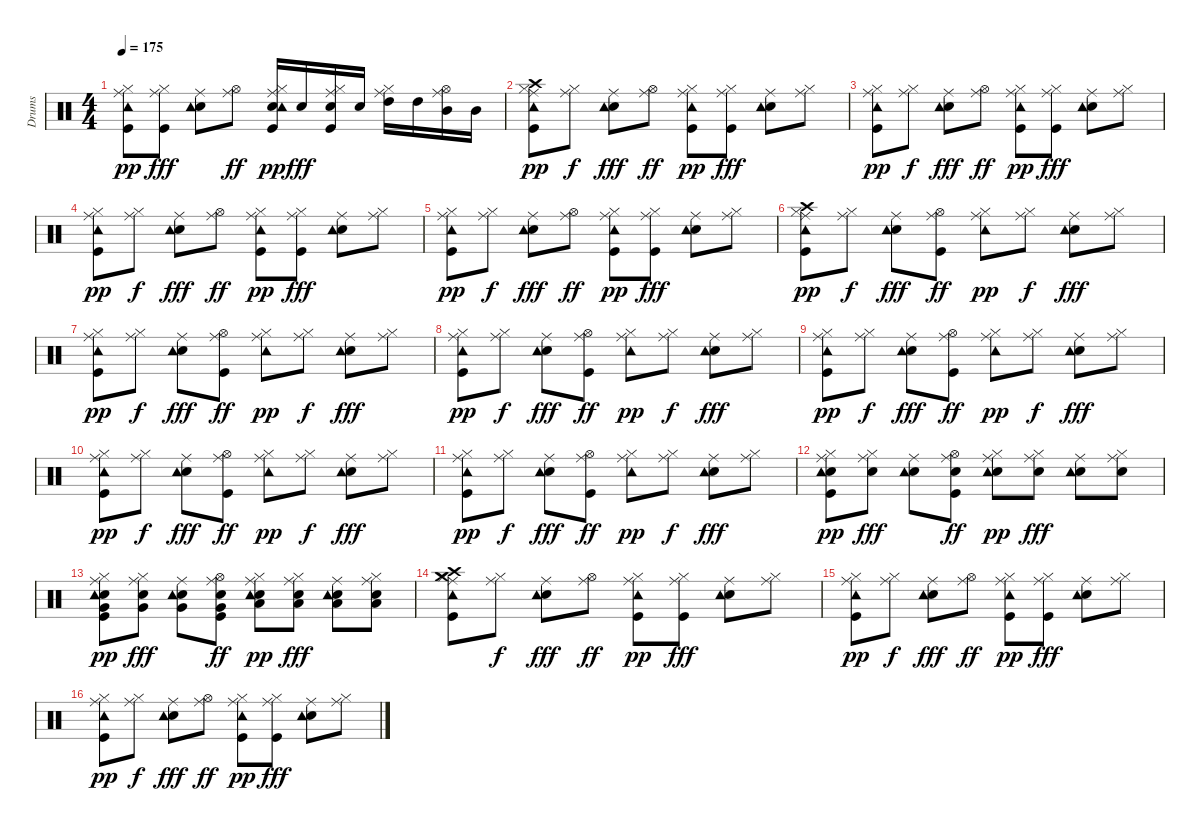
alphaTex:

\track ("Drums" "Drums") {instrument percussion}
\staff {score}
\articulation defaults
\ts (4 4)
\tempo 175
\clef neutral
\ks c
("Kick (hit)" "Hi-Hat (closed)" "Ride (middle)" "Tambourine (hit)").8{dy pp} ("Kick (hit)" "Hi-Hat (closed)" "Ride (middle)").8{dy fff} ("Snare (hit) 2" "Ride (middle)" "Tambourine (hit)").8 ("Hi-Hat (open)" "Ride (middle)").8{dy ff} ("Kick (hit)" "Snare (hit) 2" "Hi-Hat (closed)" "Ride (middle)" "Tambourine (hit)").16{dy pp} "Snare (hit) 2".16{dy fff} ("Kick (hit)" "Snare (hit) 2" "Hi-Hat (closed)" "Ride (middle)").16 "Snare (hit) 2".16 ("Hi-Hat (closed)" "High Tom (hit)" "Ride (middle)").16 "High Tom (hit)".16 ("Hi-Hat (open)" "Mid Tom (hit)" "Ride (middle)").16 "Mid Tom (hit)".16 |
("Kick (hit)" "Hi-Hat (closed)" "Crash high (hit)" "Ride (middle)" "Tambourine (hit)").8{dy pp} ("Hi-Hat (closed)" "Ride (middle)").8{dy f} ("Snare (hit) 2" "Ride (middle)" "Tambourine (hit)").8{dy fff} ("Hi-Hat (open)" "Ride (middle)").8{dy ff} ("Kick (hit)" "Hi-Hat (closed)" "Ride (middle)" "Tambourine (hit)").8{dy pp} ("Kick (hit)" "Hi-Hat (closed)" "Ride (middle)").8{dy fff} ("Snare (hit) 2" "Ride (middle)" "Tambourine (hit)").8 ("Hi-Hat (closed)" "Ride (middle)").8 |
("Kick (hit)" "Hi-Hat (closed)" "Ride (middle)" "Tambourine (hit)").8{dy pp} ("Hi-Hat (closed)" "Ride (middle)").8{dy f} ("Snare (hit) 2" "Ride (middle)" "Tambourine (hit)").8{dy fff} ("Hi-Hat (open)" "Ride (middle)").8{dy ff} ("Kick (hit)" "Hi-Hat (closed)" "Ride (middle)" "Tambourine (hit)").8{dy pp} ("Kick (hit)" "Hi-Hat (closed)" "Ride (middle)").8{dy fff} ("Snare (hit) 2" "Ride (middle)" "Tambourine (hit)").8 ("Hi-Hat (closed)" "Ride (middle)").8 |
("Kick (hit)" "Hi-Hat (closed)" "Ride (middle)" "Tambourine (hit)").8{dy pp} ("Hi-Hat (closed)" "Ride (middle)").8{dy f} ("Snare (hit) 2" "Ride (middle)" "Tambourine (hit)").8{dy fff} ("Hi-Hat (open)" "Ride (middle)").8{dy ff} ("Kick (hit)" "Hi-Hat (closed)" "Ride (middle)" "Tambourine (hit)").8{dy pp} ("Kick (hit)" "Hi-Hat (closed)" "Ride (middle)").8{dy fff} ("Snare (hit) 2" "Ride (middle)" "Tambourine (hit)").8 ("Hi-Hat (closed)" "Ride (middle)").8 |
("Kick (hit)" "Hi-Hat (closed)" "Ride (middle)" "Tambourine (hit)").8{dy pp} ("Hi-Hat (closed)" "Ride (middle)").8{dy f} ("Snare (hit) 2" "Ride (middle)" "Tambourine (hit)").8{dy fff} ("Hi-Hat (open)" "Ride (middle)").8{dy ff} ("Kick (hit)" "Hi-Hat (closed)" "Ride (middle)" "Tambourine (hit)").8{dy pp} ("Kick (hit)" "Hi-Hat (closed)" "Ride (middle)").8{dy fff} ("Snare (hit) 2" "Ride (middle)" "Tambourine (hit)").8 ("Hi-Hat (closed)" "Ride (middle)").8 |
("Kick (hit)" "Hi-Hat (closed)" "Crash high (hit)" "Ride (middle)" "Tambourine (hit)").8{dy pp} ("Hi-Hat (closed)" "Ride (middle)").8{dy f} ("Snare (hit) 2" "Ride (middle)" "Tambourine (hit)").8{dy fff} ("Kick (hit)" "Hi-Hat (open)" "Ride (middle)").8{dy ff} ("Hi-Hat (closed)" "Ride (middle)" "Tambourine (hit)").8{dy pp} ("Hi-Hat (closed)" "Ride (middle)").8{dy f} ("Snare (hit) 2" "Ride (middle)" "Tambourine (hit)").8{dy fff} ("Hi-Hat (closed)" "Ride (middle)").8 |
("Kick (hit)" "Hi-Hat (closed)" "Ride (middle)" "Tambourine (hit)").8{dy pp} ("Hi-Hat (closed)" "Ride (middle)").8{dy f} ("Snare (hit) 2" "Ride (middle)" "Tambourine (hit)").8{dy fff} ("Kick (hit)" "Hi-Hat (open)" "Ride (middle)").8{dy ff} ("Hi-Hat (closed)" "Ride (middle)" "Tambourine (hit)").8{dy pp} ("Hi-Hat (closed)" "Ride (middle)").8{dy f} ("Snare (hit) 2" "Ride (middle)" "Tambourine (hit)").8{dy fff} ("Hi-Hat (closed)" "Ride (middle)").8 |
("Kick (hit)" "Hi-Hat (closed)" "Ride (middle)" "Tambourine (hit)").8{dy pp} ("Hi-Hat (closed)" "Ride (middle)").8{dy f} ("Snare (hit) 2" "Ride (middle)" "Tambourine (hit)").8{dy fff} ("Kick (hit)" "Hi-Hat (open)" "Ride (middle)").8{dy ff} ("Hi-Hat (closed)" "Ride (middle)" "Tambourine (hit)").8{dy pp} ("Hi-Hat (closed)" "Ride (middle)").8{dy f} ("Snare (hit) 2" "Ride (middle)" "Tambourine (hit)").8{dy fff} ("Hi-Hat (closed)" "Ride (middle)").8 |
("Kick (hit)" "Hi-Hat (closed)" "Ride (middle)" "Tambourine (hit)").8{dy pp} ("Hi-Hat (closed)" "Ride (middle)").8{dy f} ("Snare (hit) 2" "Ride (middle)" "Tambourine (hit)").8{dy fff} ("Kick (hit)" "Hi-Hat (open)" "Ride (middle)").8{dy ff} ("Hi-Hat (closed)" "Ride (middle)" "Tambourine (hit)").8{dy pp} ("Hi-Hat (closed)" "Ride (middle)").8{dy f} ("Snare (hit) 2" "Ride (middle)" "Tambourine (hit)").8{dy fff} ("Hi-Hat (closed)" "Ride (middle)").8 |
("Kick (hit)" "Hi-Hat (closed)" "Ride (middle)" "Tambourine (hit)").8{dy pp} ("Hi-Hat (closed)" "Ride (middle)").8{dy f} ("Snare (hit) 2" "Ride (middle)" "Tambourine (hit)").8{dy fff} ("Kick (hit)" "Hi-Hat (open)" "Ride (middle)").8{dy ff} ("Hi-Hat (closed)" "Ride (middle)" "Tambourine (hit)").8{dy pp} ("Hi-Hat (closed)" "Ride (middle)").8{dy f} ("Snare (hit) 2" "Ride (middle)" "Tambourine (hit)").8{dy fff} ("Hi-Hat (closed)" "Ride (middle)").8 |
("Kick (hit)" "Hi-Hat (closed)" "Ride (middle)" "Tambourine (hit)").8{dy pp} ("Hi-Hat (closed)" "Ride (middle)").8{dy f} ("Snare (hit) 2" "Ride (middle)" "Tambourine (hit)").8{dy fff} ("Kick (hit)" "Hi-Hat (open)" "Ride (middle)").8{dy ff} ("Hi-Hat (closed)" "Ride (middle)" "Tambourine (hit)").8{dy pp} ("Hi-Hat (closed)" "Ride (middle)").8{dy f} ("Snare (hit) 2" "Ride (middle)" "Tambourine (hit)").8{dy fff} ("Hi-Hat (closed)" "Ride (middle)").8 |
("Kick (hit)" "Snare (hit) 2" "Hi-Hat (closed)" "Ride (middle)" "Tambourine (hit)").8{dy pp} ("Snare (hit) 2" "Hi-Hat (closed)" "Ride (middle)").8{dy fff} ("Snare (hit) 2" "Ride (middle)" "Tambourine (hit)").8 ("Kick (hit)" "Snare (hit) 2" "Hi-Hat (open)" "Ride (middle)").8{dy ff} ("Snare (hit) 2" "Hi-Hat (closed)" "Ride (middle)" "Tambourine (hit)").8{dy pp} ("Snare (hit) 2" "Hi-Hat (closed)" "Ride (middle)").8{dy fff} ("Snare (hit) 2" "Ride (middle)" "Tambourine (hit)").8 ("Snare (hit) 2" "Hi-Hat (closed)" "Ride (middle)").8 |
("Kick (hit)" "Snare (hit) 2" "Hi-Hat (closed)" "Very Low Tom (hit)" "Ride (middle)" "Tambourine (hit)").8{dy pp} ("Snare (hit) 2" "Hi-Hat (closed)" "Very Low Tom (hit)" "Ride (middle)").8{dy fff} ("Snare (hit) 2" "Very Low Tom (hit)" "Ride (middle)" "Tambourine (hit)").8 ("Kick (hit)" "Snare (hit) 2" "Very Low Tom (hit)" "Hi-Hat (open)" "Ride (middle)").8{dy ff} ("Snare (hit) 2" "Low Floor Tom (hit)" "Hi-Hat (closed)" "Ride (middle)" "Tambourine (hit)").8{dy pp} ("Snare (hit) 2" "Low Floor Tom (hit)" "Hi-Hat (closed)" "Ride (middle)").8{dy fff} ("Snare (hit) 2" "Low Floor Tom (hit)" "Ride (middle)" "Tambourine (hit)").8 ("Snare (hit) 2" "Low Floor Tom (hit)" "Hi-Hat (closed)" "Ride (middle)").8 |
("Kick (hit)" "Hi-Hat (closed)" "Crash high (hit)" "Ride (middle)" "Tambourine (hit)" "Crash medium (hit)").8 ("Hi-Hat (closed)" "Ride (middle)").8{dy f} ("Snare (hit) 2" "Ride (middle)" "Tambourine (hit)").8{dy fff} ("Hi-Hat (open)" "Ride (middle)").8{dy ff} ("Kick (hit)" "Hi-Hat (closed)" "Ride (middle)" "Tambourine (hit)").8{dy pp} ("Kick (hit)" "Hi-Hat (closed)" "Ride (middle)").8{dy fff} ("Snare (hit) 2" "Ride (middle)" "Tambourine (hit)").8 ("Hi-Hat (closed)" "Ride (middle)").8 |
("Kick (hit)" "Hi-Hat (closed)" "Ride (middle)" "Tambourine (hit)").8{dy pp} ("Hi-Hat (closed)" "Ride (middle)").8{dy f} ("Snare (hit) 2" "Ride (middle)" "Tambourine (hit)").8{dy fff} ("Hi-Hat (open)" "Ride (middle)").8{dy ff} ("Kick (hit)" "Hi-Hat (closed)" "Ride (middle)" "Tambourine (hit)").8{dy pp} ("Kick (hit)" "Hi-Hat (closed)" "Ride (middle)").8{dy fff} ("Snare (hit) 2" "Ride (middle)" "Tambourine (hit)").8 ("Hi-Hat (closed)" "Ride (middle)").8 |
("Kick (hit)" "Hi-Hat (closed)" "Ride (middle)" "Tambourine (hit)").8{dy pp} ("Hi-Hat (closed)" "Ride (middle)").8{dy f} ("Snare (hit) 2" "Ride (middle)" "Tambourine (hit)").8{dy fff} ("Hi-Hat (open)" "Ride (middle)").8{dy ff} ("Kick (hit)" "Hi-Hat (closed)" "Ride (middle)" "Tambourine (hit)").8{dy pp} ("Kick (hit)" "Hi-Hat (closed)" "Ride (middle)").8{dy fff} ("Snare (hit) 2" "Ride (middle)" "Tambourine (hit)").8 ("Hi-Hat (closed)" "Ride (middle)").8
